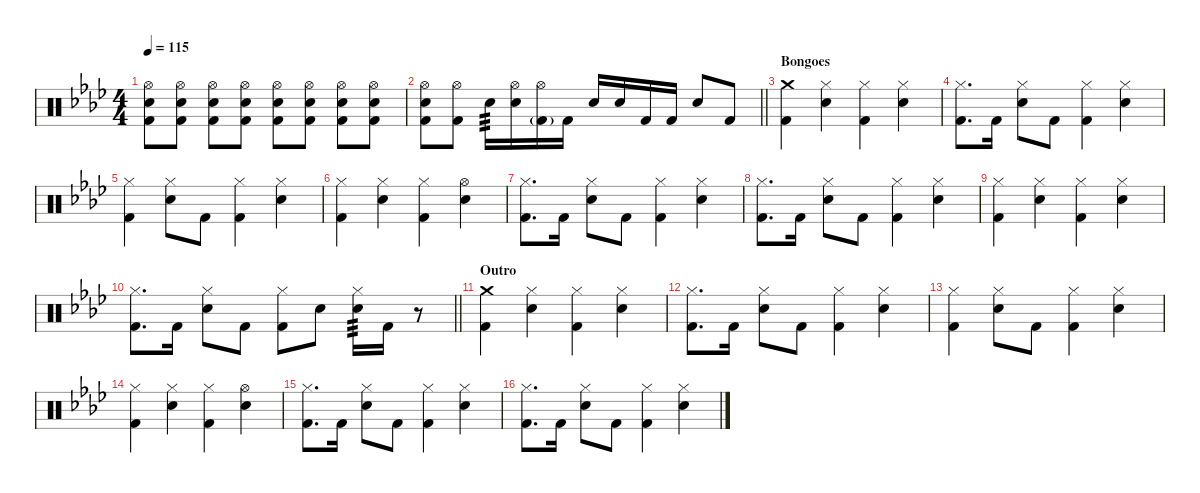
\defaultSystemsLayout 4
\hideDynamics
\bracketExtendMode nobrackets
\singleTrackTrackNamePolicy hidden
\multiTrackTrackNamePolicy hidden
\firstSystemTrackNameMode fullname
\firstSystemTrackNameOrientation horizontal
\otherSystemsTrackNameOrientation horizontal
\track ("Drums" "drm.") {instrument percussion}
\staff {score}
\articulation defaults
\ts (4 4)
\tempo 115
\clef neutral
\ks ab
("Hi-Hat (open)"{acc forcenatural} "Snare (hit) 2"{acc forcenatural} "Kick (hit) 2"{acc forcenatural}).8{dy mf beam Down} ("Hi-Hat (open)"{acc forcenatural} "Snare (hit) 2"{acc forcenatural} "Kick (hit) 2"{acc forcenatural}).8{beam Down} ("Hi-Hat (open)"{acc forcenatural} "Snare (hit) 2"{acc forcenatural} "Kick (hit) 2"{acc forcenatural}).8{beam Down} ("Hi-Hat (open)"{acc forcenatural} "Snare (hit) 2"{acc forcenatural} "Kick (hit) 2"{acc forcenatural}).8{beam Down} ("Hi-Hat (open)"{acc forcenatural} "Snare (hit) 2"{acc forcenatural} "Kick (hit) 2"{acc forcenatural}).8{beam Down} ("Hi-Hat (open)"{acc forcenatural} "Snare (hit) 2"{acc forcenatural} "Kick (hit) 2"{acc forcenatural}).8{beam Down} ("Hi-Hat (open)"{acc forcenatural} "Snare (hit) 2"{acc forcenatural} "Kick (hit) 2"{acc forcenatural}).8{beam Down} ("Hi-Hat (open)"{acc forcenatural} "Snare (hit) 2"{acc forcenatural} "Kick (hit) 2"{acc forcenatural}).8{beam Down} |
\barLineRight lightlight
("Hi-Hat (open)"{acc forcenatural} "Snare (hit) 2"{acc forcenatural} "Kick (hit) 2"{acc forcenatural}).8{dy f beam Down} ("Hi-Hat (open)"{acc forcenatural} "Kick (hit) 2"{acc forcenatural}).8{beam Down} "Snare (hit) 2"{acc forcenatural}.16{tp 3 beam Down} ("Hi-Hat (open)"{acc forcenatural} "Snare (hit) 2"{acc forcenatural}).16{beam Down} ("Hi-Hat (open)"{acc forcenatural} "Kick (hit) 2"{g acc forcenatural}).16{beam Down} "Kick (hit) 2"{acc forcenatural}.16{beam Down} "Snare (hit) 2"{acc forcenatural}.16{dy fff beam Up} "Snare (hit) 2"{acc forcenatural}.16{beam Up} "Kick (hit) 2"{acc forcenatural}.16{dy ff beam Up} "Kick (hit) 2"{acc forcenatural}.16{beam Up} "Snare (hit) 2"{acc forcenatural}.8{dy fff beam Up} "Kick (hit) 2"{acc forcenatural}.8{beam Up} |
\section ("" "Bongoes")
("Crash medium (hit)"{acc forcenatural} "Kick (hit) 2"{acc forcenatural}).4{dy f beam Down} ("Hi-Hat (closed)"{acc forcenatural} "Snare (hit) 2"{acc forcenatural}).4{beam Down} ("Hi-Hat (closed)"{acc forcenatural} "Kick (hit) 2"{acc forcenatural}).4{beam Down} ("Hi-Hat (closed)"{acc forcenatural} "Snare (hit) 2"{acc forcenatural}).4{beam Down} |
("Hi-Hat (closed)"{acc forcenatural} "Kick (hit) 2"{acc forcenatural}).8{d beam Down} "Kick (hit) 2"{acc forcenatural}.16{beam Down} ("Hi-Hat (closed)"{acc forcenatural} "Snare (hit) 2"{acc forcenatural}).8{beam Down} "Kick (hit) 2"{acc forcenatural}.8{beam Down} ("Hi-Hat (closed)"{acc forcenatural} "Kick (hit) 2"{acc forcenatural}).4{beam Down} ("Hi-Hat (closed)"{acc forcenatural} "Snare (hit) 2"{acc forcenatural}).4{beam Down} |
("Hi-Hat (closed)"{acc forcenatural} "Kick (hit) 2"{acc forcenatural}).4{beam Down} ("Hi-Hat (closed)"{acc forcenatural} "Snare (hit) 2"{acc forcenatural}).8{beam Down} "Kick (hit) 2"{acc forcenatural}.8{beam Down} ("Hi-Hat (closed)"{acc forcenatural} "Kick (hit) 2"{acc forcenatural}).4{beam Down} ("Hi-Hat (closed)"{acc forcenatural} "Snare (hit) 2"{acc forcenatural}).4{beam Down} |
("Hi-Hat (closed)"{acc forcenatural} "Kick (hit) 2"{acc forcenatural}).4{beam Down} ("Hi-Hat (closed)"{acc forcenatural} "Snare (hit) 2"{acc forcenatural}).4{beam Down} ("Hi-Hat (closed)"{acc forcenatural} "Kick (hit) 2"{acc forcenatural}).4{beam Down} ("Hi-Hat (open)"{acc forcenatural} "Snare (hit) 2"{acc forcenatural}).4{beam Down} |
("Hi-Hat (closed)"{acc forcenatural} "Kick (hit) 2"{acc forcenatural}).8{d beam Down} "Kick (hit) 2"{acc forcenatural}.16{beam Down} ("Hi-Hat (closed)"{acc forcenatural} "Snare (hit) 2"{acc forcenatural}).8{beam Down} "Kick (hit) 2"{acc forcenatural}.8{beam Down} ("Hi-Hat (closed)"{acc forcenatural} "Kick (hit) 2"{acc forcenatural}).4{beam Down} ("Hi-Hat (closed)"{acc forcenatural} "Snare (hit) 2"{acc forcenatural}).4{beam Down} |
("Hi-Hat (closed)"{acc forcenatural} "Kick (hit) 2"{acc forcenatural}).8{d beam Down} "Kick (hit) 2"{acc forcenatural}.16{beam Down} ("Hi-Hat (closed)"{acc forcenatural} "Snare (hit) 2"{acc forcenatural}).8{beam Down} "Kick (hit) 2"{acc forcenatural}.8{beam Down} ("Hi-Hat (closed)"{acc forcenatural} "Kick (hit) 2"{acc forcenatural}).4{beam Down} ("Hi-Hat (closed)"{acc forcenatural} "Snare (hit) 2"{acc forcenatural}).4{beam Down} |
("Hi-Hat (closed)"{acc forcenatural} "Kick (hit) 2"{acc forcenatural}).4{beam Down} ("Hi-Hat (closed)"{acc forcenatural} "Snare (hit) 2"{acc forcenatural}).4{beam Down} ("Hi-Hat (closed)"{acc forcenatural} "Kick (hit) 2"{acc forcenatural}).4{beam Down} ("Hi-Hat (closed)"{acc forcenatural} "Snare (hit) 2"{acc forcenatural}).4{beam Down} |
\barLineRight lightlight
("Hi-Hat (closed)"{acc forcenatural} "Kick (hit) 2"{acc forcenatural}).8{d beam Down} "Kick (hit) 2"{acc forcenatural}.16{beam Down} ("Hi-Hat (closed)"{acc forcenatural} "Snare (hit) 2"{acc forcenatural}).8{beam Down} "Kick (hit) 2"{acc forcenatural}.8{beam Down} ("Hi-Hat (closed)"{acc forcenatural} "Kick (hit) 2"{acc forcenatural}).8{beam Down} "Snare (hit) 2"{acc forcenatural}.8{beam Down} ("Hi-Hat (closed)"{acc forcenatural} "Snare (hit) 2"{acc forcenatural}).16{tp 3 beam Down} "Kick (hit) 2"{acc forcenatural}.16{beam Down} r.8{beam Down} |
\section ("" "Outro")
("Crash medium (hit)"{acc forcenatural} "Kick (hit) 2"{acc forcenatural}).4{beam Down} ("Hi-Hat (closed)"{acc forcenatural} "Snare (hit) 2"{acc forcenatural}).4{beam Down} ("Hi-Hat (closed)"{acc forcenatural} "Kick (hit) 2"{acc forcenatural}).4{beam Down} ("Hi-Hat (closed)"{acc forcenatural} "Snare (hit) 2"{acc forcenatural}).4{beam Down} |
("Hi-Hat (closed)"{acc forcenatural} "Kick (hit) 2"{acc forcenatural}).8{d beam Down} "Kick (hit) 2"{acc forcenatural}.16{beam Down} ("Hi-Hat (closed)"{acc forcenatural} "Snare (hit) 2"{acc forcenatural}).8{beam Down} "Kick (hit) 2"{acc forcenatural}.8{beam Down} ("Hi-Hat (closed)"{acc forcenatural} "Kick (hit) 2"{acc forcenatural}).4{beam Down} ("Hi-Hat (closed)"{acc forcenatural} "Snare (hit) 2"{acc forcenatural}).4{beam Down} |
("Hi-Hat (closed)"{acc forcenatural} "Kick (hit) 2"{acc forcenatural}).4{beam Down} ("Hi-Hat (closed)"{acc forcenatural} "Snare (hit) 2"{acc forcenatural}).8{beam Down} "Kick (hit) 2"{acc forcenatural}.8{beam Down} ("Hi-Hat (closed)"{acc forcenatural} "Kick (hit) 2"{acc forcenatural}).4{beam Down} ("Hi-Hat (closed)"{acc forcenatural} "Snare (hit) 2"{acc forcenatural}).4{beam Down} |
("Hi-Hat (closed)"{acc forcenatural} "Kick (hit) 2"{acc forcenatural}).4{beam Down} ("Hi-Hat (closed)"{acc forcenatural} "Snare (hit) 2"{acc forcenatural}).4{beam Down} ("Hi-Hat (closed)"{acc forcenatural} "Kick (hit) 2"{acc forcenatural}).4{beam Down} ("Hi-Hat (open)"{acc forcenatural} "Snare (hit) 2"{acc forcenatural}).4{beam Down} |
("Hi-Hat (closed)"{acc forcenatural} "Kick (hit) 2"{acc forcenatural}).8{d beam Down} "Kick (hit) 2"{acc forcenatural}.16{beam Down} ("Hi-Hat (closed)"{acc forcenatural} "Snare (hit) 2"{acc forcenatural}).8{beam Down} "Kick (hit) 2"{acc forcenatural}.8{beam Down} ("Hi-Hat (closed)"{acc forcenatural} "Kick (hit) 2"{acc forcenatural}).4{beam Down} ("Hi-Hat (closed)"{acc forcenatural} "Snare (hit) 2"{acc forcenatural}).4{beam Down} |
("Hi-Hat (closed)"{acc forcenatural} "Kick (hit) 2"{acc forcenatural}).8{d beam Down} "Kick (hit) 2"{acc forcenatural}.16{beam Down} ("Hi-Hat (closed)"{acc forcenatural} "Snare (hit) 2"{acc forcenatural}).8{beam Down} "Kick (hit) 2"{acc forcenatural}.8{beam Down} ("Hi-Hat (closed)"{acc forcenatural} "Kick (hit) 2"{acc forcenatural}).4{beam Down} ("Hi-Hat (closed)"{acc forcenatural} "Snare (hit) 2"{acc forcenatural}).4{beam Down}
